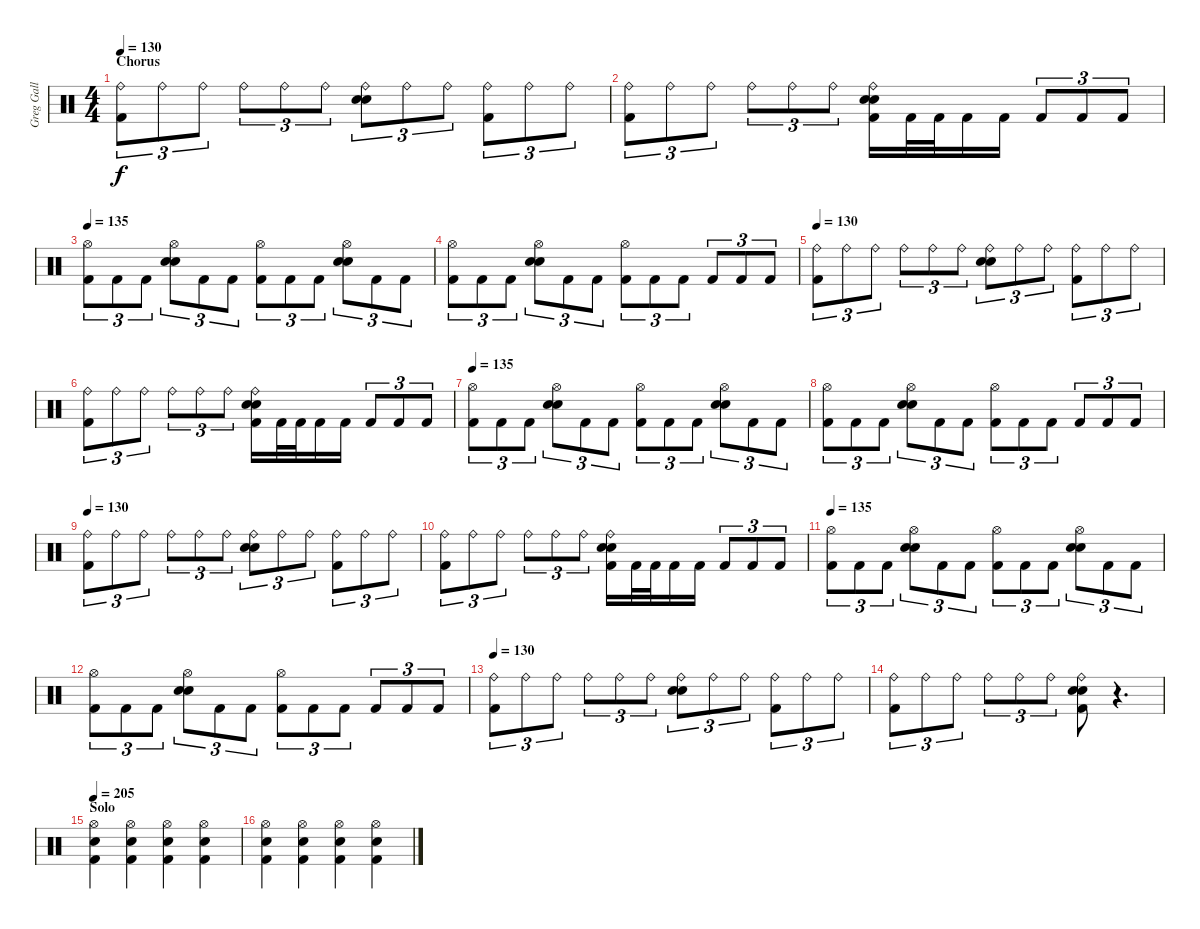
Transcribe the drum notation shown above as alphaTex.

\track ("Greg Gall - Drums" "Greg Gall ") {instrument percussion}
\staff {score}
\articulation defaults
\ts (4 4)
\section ("" "Chorus")
\tempo 130
\clef neutral
\ks c
("Ride (bell)" "Kick (hit) 2").8{tu (3 2) dy f} "Ride (bell)".8{tu (3 2)} "Ride (bell)".8{tu (3 2)} "Ride (bell)".8{tu (3 2)} "Ride (bell)".8{tu (3 2)} "Ride (bell)".8{tu (3 2)} ("Ride (bell)" "Electric Snare (hit)" "Snare (hit) 2").8{tu (3 2)} "Ride (bell)".8{tu (3 2)} "Ride (bell)".8{tu (3 2)} ("Ride (bell)" "Kick (hit) 2").8{tu (3 2)} "Ride (bell)".8{tu (3 2)} "Ride (bell)".8{tu (3 2)} |
("Ride (bell)" "Kick (hit) 2").8{tu (3 2)} "Ride (bell)".8{tu (3 2)} "Ride (bell)".8{tu (3 2)} "Ride (bell)".8{tu (3 2)} "Ride (bell)".8{tu (3 2)} "Ride (bell)".8{tu (3 2)} ("Ride (bell)" "Electric Snare (hit)" "Snare (hit) 2" "Kick (hit) 2").16 "Kick (hit) 2".32 "Kick (hit) 2".32 "Kick (hit) 2".16 "Kick (hit) 2".16 "Kick (hit) 2".8{tu (3 2)} "Kick (hit) 2".8{tu (3 2)} "Kick (hit) 2".8{tu (3 2)} |
\tempo 135
("Hi-Hat (open)" "Kick (hit) 2").8{tu (3 2)} "Kick (hit) 2".8{tu (3 2)} "Kick (hit) 2".8{tu (3 2)} ("Hi-Hat (open)" "Electric Snare (hit)" "Snare (hit) 2").8{tu (3 2)} "Kick (hit) 2".8{tu (3 2)} "Kick (hit) 2".8{tu (3 2)} ("Hi-Hat (open)" "Kick (hit) 2").8{tu (3 2)} "Kick (hit) 2".8{tu (3 2)} "Kick (hit) 2".8{tu (3 2)} ("Hi-Hat (open)" "Electric Snare (hit)" "Snare (hit) 2").8{tu (3 2)} "Kick (hit) 2".8{tu (3 2)} "Kick (hit) 2".8{tu (3 2)} |
("Hi-Hat (open)" "Kick (hit) 2").8{tu (3 2)} "Kick (hit) 2".8{tu (3 2)} "Kick (hit) 2".8{tu (3 2)} ("Hi-Hat (open)" "Electric Snare (hit)" "Snare (hit) 2").8{tu (3 2)} "Kick (hit) 2".8{tu (3 2)} "Kick (hit) 2".8{tu (3 2)} ("Hi-Hat (open)" "Kick (hit) 2").8{tu (3 2)} "Kick (hit) 2".8{tu (3 2)} "Kick (hit) 2".8{tu (3 2)} "Kick (hit) 2".8{tu (3 2)} "Kick (hit) 2".8{tu (3 2)} "Kick (hit) 2".8{tu (3 2)} |
\tempo 130
("Ride (bell)" "Kick (hit) 2").8{tu (3 2)} "Ride (bell)".8{tu (3 2)} "Ride (bell)".8{tu (3 2)} "Ride (bell)".8{tu (3 2)} "Ride (bell)".8{tu (3 2)} "Ride (bell)".8{tu (3 2)} ("Ride (bell)" "Electric Snare (hit)" "Snare (hit) 2").8{tu (3 2)} "Ride (bell)".8{tu (3 2)} "Ride (bell)".8{tu (3 2)} ("Ride (bell)" "Kick (hit) 2").8{tu (3 2)} "Ride (bell)".8{tu (3 2)} "Ride (bell)".8{tu (3 2)} |
("Ride (bell)" "Kick (hit) 2").8{tu (3 2)} "Ride (bell)".8{tu (3 2)} "Ride (bell)".8{tu (3 2)} "Ride (bell)".8{tu (3 2)} "Ride (bell)".8{tu (3 2)} "Ride (bell)".8{tu (3 2)} ("Ride (bell)" "Electric Snare (hit)" "Snare (hit) 2" "Kick (hit) 2").16 "Kick (hit) 2".32 "Kick (hit) 2".32 "Kick (hit) 2".16 "Kick (hit) 2".16 "Kick (hit) 2".8{tu (3 2)} "Kick (hit) 2".8{tu (3 2)} "Kick (hit) 2".8{tu (3 2)} |
\tempo 135
("Hi-Hat (open)" "Kick (hit) 2").8{tu (3 2)} "Kick (hit) 2".8{tu (3 2)} "Kick (hit) 2".8{tu (3 2)} ("Hi-Hat (open)" "Electric Snare (hit)" "Snare (hit) 2").8{tu (3 2)} "Kick (hit) 2".8{tu (3 2)} "Kick (hit) 2".8{tu (3 2)} ("Hi-Hat (open)" "Kick (hit) 2").8{tu (3 2)} "Kick (hit) 2".8{tu (3 2)} "Kick (hit) 2".8{tu (3 2)} ("Hi-Hat (open)" "Electric Snare (hit)" "Snare (hit) 2").8{tu (3 2)} "Kick (hit) 2".8{tu (3 2)} "Kick (hit) 2".8{tu (3 2)} |
("Hi-Hat (open)" "Kick (hit) 2").8{tu (3 2)} "Kick (hit) 2".8{tu (3 2)} "Kick (hit) 2".8{tu (3 2)} ("Hi-Hat (open)" "Electric Snare (hit)" "Snare (hit) 2").8{tu (3 2)} "Kick (hit) 2".8{tu (3 2)} "Kick (hit) 2".8{tu (3 2)} ("Hi-Hat (open)" "Kick (hit) 2").8{tu (3 2)} "Kick (hit) 2".8{tu (3 2)} "Kick (hit) 2".8{tu (3 2)} "Kick (hit) 2".8{tu (3 2)} "Kick (hit) 2".8{tu (3 2)} "Kick (hit) 2".8{tu (3 2)} |
\tempo 130
("Ride (bell)" "Kick (hit) 2").8{tu (3 2)} "Ride (bell)".8{tu (3 2)} "Ride (bell)".8{tu (3 2)} "Ride (bell)".8{tu (3 2)} "Ride (bell)".8{tu (3 2)} "Ride (bell)".8{tu (3 2)} ("Ride (bell)" "Electric Snare (hit)" "Snare (hit) 2").8{tu (3 2)} "Ride (bell)".8{tu (3 2)} "Ride (bell)".8{tu (3 2)} ("Ride (bell)" "Kick (hit) 2").8{tu (3 2)} "Ride (bell)".8{tu (3 2)} "Ride (bell)".8{tu (3 2)} |
("Ride (bell)" "Kick (hit) 2").8{tu (3 2)} "Ride (bell)".8{tu (3 2)} "Ride (bell)".8{tu (3 2)} "Ride (bell)".8{tu (3 2)} "Ride (bell)".8{tu (3 2)} "Ride (bell)".8{tu (3 2)} ("Ride (bell)" "Electric Snare (hit)" "Snare (hit) 2" "Kick (hit) 2").16 "Kick (hit) 2".32 "Kick (hit) 2".32 "Kick (hit) 2".16 "Kick (hit) 2".16 "Kick (hit) 2".8{tu (3 2)} "Kick (hit) 2".8{tu (3 2)} "Kick (hit) 2".8{tu (3 2)} |
\tempo 135
("Hi-Hat (open)" "Kick (hit) 2").8{tu (3 2)} "Kick (hit) 2".8{tu (3 2)} "Kick (hit) 2".8{tu (3 2)} ("Hi-Hat (open)" "Electric Snare (hit)" "Snare (hit) 2").8{tu (3 2)} "Kick (hit) 2".8{tu (3 2)} "Kick (hit) 2".8{tu (3 2)} ("Hi-Hat (open)" "Kick (hit) 2").8{tu (3 2)} "Kick (hit) 2".8{tu (3 2)} "Kick (hit) 2".8{tu (3 2)} ("Hi-Hat (open)" "Electric Snare (hit)" "Snare (hit) 2").8{tu (3 2)} "Kick (hit) 2".8{tu (3 2)} "Kick (hit) 2".8{tu (3 2)} |
("Hi-Hat (open)" "Kick (hit) 2").8{tu (3 2)} "Kick (hit) 2".8{tu (3 2)} "Kick (hit) 2".8{tu (3 2)} ("Hi-Hat (open)" "Electric Snare (hit)" "Snare (hit) 2").8{tu (3 2)} "Kick (hit) 2".8{tu (3 2)} "Kick (hit) 2".8{tu (3 2)} ("Hi-Hat (open)" "Kick (hit) 2").8{tu (3 2)} "Kick (hit) 2".8{tu (3 2)} "Kick (hit) 2".8{tu (3 2)} "Kick (hit) 2".8{tu (3 2)} "Kick (hit) 2".8{tu (3 2)} "Kick (hit) 2".8{tu (3 2)} |
\tempo 130
("Ride (bell)" "Kick (hit) 2").8{tu (3 2)} "Ride (bell)".8{tu (3 2)} "Ride (bell)".8{tu (3 2)} "Ride (bell)".8{tu (3 2)} "Ride (bell)".8{tu (3 2)} "Ride (bell)".8{tu (3 2)} ("Ride (bell)" "Electric Snare (hit)" "Snare (hit) 2").8{tu (3 2)} "Ride (bell)".8{tu (3 2)} "Ride (bell)".8{tu (3 2)} ("Ride (bell)" "Kick (hit) 2").8{tu (3 2)} "Ride (bell)".8{tu (3 2)} "Ride (bell)".8{tu (3 2)} |
("Ride (bell)" "Kick (hit) 2").8{tu (3 2)} "Ride (bell)".8{tu (3 2)} "Ride (bell)".8{tu (3 2)} "Ride (bell)".8{tu (3 2)} "Ride (bell)".8{tu (3 2)} "Ride (bell)".8{tu (3 2)} ("Ride (bell)" "Electric Snare (hit)" "Snare (hit) 2" "Kick (hit) 2").8 r.4{d} |
\section ("" "Solo")
\tempo 205
("Hi-Hat (open)" "Snare (hit) 2" "Kick (hit) 2").4 ("Hi-Hat (open)" "Snare (hit) 2" "Kick (hit) 2").4 ("Hi-Hat (open)" "Snare (hit) 2" "Kick (hit) 2").4 ("Hi-Hat (open)" "Snare (hit) 2" "Kick (hit) 2").4 |
("Hi-Hat (open)" "Snare (hit) 2" "Kick (hit) 2").4 ("Hi-Hat (open)" "Snare (hit) 2" "Kick (hit) 2").4 ("Hi-Hat (open)" "Snare (hit) 2" "Kick (hit) 2").4 ("Hi-Hat (open)" "Snare (hit) 2" "Kick (hit) 2").4
